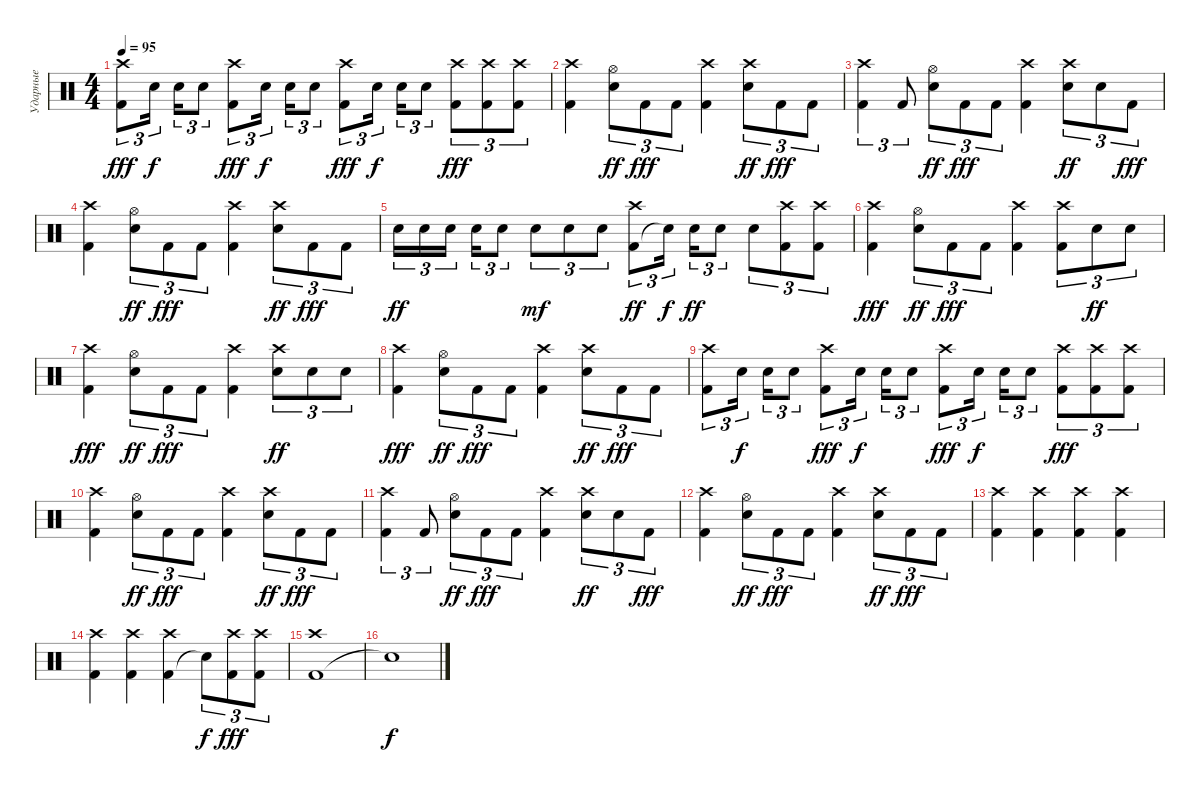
\track ("Ударные" "Ударные") {instrument percussion}
\staff
\articulation defaults
\ts (4 4)
\tempo 95
\clef neutral
\ks c
("Kick (hit) 2" "Crash high (hit)").8{tu (3 2) dy fff} "Snare (hit) 2".16{tu (3 2) dy f beam splitsecondary} "Snare (hit) 2".16{tu (3 2)} "Snare (hit) 2".8{tu (3 2)} ("Kick (hit) 2" "Crash high (hit)").8{tu (3 2) dy fff} "Snare (hit) 2".16{tu (3 2) dy f beam splitsecondary} "Snare (hit) 2".16{tu (3 2)} "Snare (hit) 2".8{tu (3 2)} ("Kick (hit) 2" "Crash high (hit)").8{tu (3 2) dy fff} "Snare (hit) 2".16{tu (3 2) dy f beam splitsecondary} "Snare (hit) 2".16{tu (3 2)} "Snare (hit) 2".8{tu (3 2)} ("Kick (hit) 2" "Crash high (hit)").8{tu (3 2) dy fff} ("Kick (hit) 2" "Crash high (hit)").8{tu (3 2)} ("Kick (hit) 2" "Crash high (hit)").8{tu (3 2)} |
("Kick (hit) 2" "Crash high (hit)").4 ("Snare (hit) 2" "Hi-Hat (open)").8{tu (3 2) dy ff} "Kick (hit) 2".8{tu (3 2) dy fff} "Kick (hit) 2".8{tu (3 2)} ("Kick (hit) 2" "Crash high (hit)").4 ("Snare (hit) 2" "Crash high (hit)").8{tu (3 2) dy ff} "Kick (hit) 2".8{tu (3 2) dy fff} "Kick (hit) 2".8{tu (3 2)} |
("Kick (hit) 2" "Crash high (hit)").4{tu (3 2)} "Kick (hit) 2".8{tu (3 2)} ("Snare (hit) 2" "Hi-Hat (open)").8{tu (3 2) dy ff} "Kick (hit) 2".8{tu (3 2) dy fff} "Kick (hit) 2".8{tu (3 2)} ("Kick (hit) 2" "Crash high (hit)").4 ("Snare (hit) 2" "Crash high (hit)").8{tu (3 2) dy ff} "Snare (hit) 2".8{tu (3 2)} "Kick (hit) 2".8{tu (3 2) dy fff} |
("Kick (hit) 2" "Crash high (hit)").4 ("Snare (hit) 2" "Hi-Hat (open)").8{tu (3 2) dy ff} "Kick (hit) 2".8{tu (3 2) dy fff} "Kick (hit) 2".8{tu (3 2)} ("Kick (hit) 2" "Crash high (hit)").4 ("Snare (hit) 2" "Crash high (hit)").8{tu (3 2) dy ff} "Kick (hit) 2".8{tu (3 2) dy fff} "Kick (hit) 2".8{tu (3 2)} |
"Snare (hit) 2".16{tu (3 2) dy ff} "Snare (hit) 2".16{tu (3 2)} "Snare (hit) 2".16{tu (3 2) beam splitsecondary} "Snare (hit) 2".16{tu (3 2)} "Snare (hit) 2".8{tu (3 2)} "Snare (hit) 2".8{tu (3 2) dy mf} "Snare (hit) 2".8{tu (3 2)} "Snare (hit) 2".8{tu (3 2)} ("Kick (hit) 2" "Crash high (hit)").8{tu (3 2) dy ff} "Snare (hit)"{t}.16{tu (3 2) dy f beam splitsecondary} "Snare (hit) 2".16{tu (3 2) dy ff} "Snare (hit) 2".8{tu (3 2)} "Snare (hit) 2".8{tu (3 2)} ("Kick (hit) 2" "Crash high (hit)").8{tu (3 2)} ("Kick (hit) 2" "Crash high (hit)").8{tu (3 2)} |
("Kick (hit) 2" "Crash high (hit)").4{dy fff} ("Snare (hit) 2" "Hi-Hat (open)").8{tu (3 2) dy ff} "Kick (hit) 2".8{tu (3 2) dy fff} "Kick (hit) 2".8{tu (3 2)} ("Kick (hit) 2" "Crash high (hit)").4 ("Kick (hit) 2" "Crash high (hit)").8{tu (3 2)} "Electric Snare (hit)".8{tu (3 2) dy ff} "Electric Snare (hit)".8{tu (3 2)} |
("Kick (hit) 2" "Crash high (hit)").4{dy fff} ("Snare (hit) 2" "Hi-Hat (open)").8{tu (3 2) dy ff} "Kick (hit) 2".8{tu (3 2) dy fff} "Kick (hit) 2".8{tu (3 2)} ("Kick (hit) 2" "Crash high (hit)").4 ("Snare (hit) 2" "Crash high (hit)").8{tu (3 2) dy ff} "Electric Snare (hit)".8{tu (3 2)} "Electric Snare (hit)".8{tu (3 2)} |
("Kick (hit) 2" "Crash high (hit)").4{dy fff} ("Snare (hit) 2" "Hi-Hat (open)").8{tu (3 2) dy ff} "Kick (hit) 2".8{tu (3 2) dy fff} "Kick (hit) 2".8{tu (3 2)} ("Kick (hit) 2" "Crash high (hit)").4 ("Snare (hit) 2" "Crash high (hit)").8{tu (3 2) dy ff} "Kick (hit) 2".8{tu (3 2) dy fff} "Kick (hit) 2".8{tu (3 2)} |
("Kick (hit) 2" "Crash high (hit)").8{tu (3 2)} "Snare (hit) 2".16{tu (3 2) dy f beam splitsecondary} "Snare (hit) 2".16{tu (3 2)} "Snare (hit) 2".8{tu (3 2)} ("Kick (hit) 2" "Crash high (hit)").8{tu (3 2) dy fff} "Snare (hit) 2".16{tu (3 2) dy f beam splitsecondary} "Snare (hit) 2".16{tu (3 2)} "Snare (hit) 2".8{tu (3 2)} ("Kick (hit) 2" "Crash high (hit)").8{tu (3 2) dy fff} "Snare (hit) 2".16{tu (3 2) dy f beam splitsecondary} "Snare (hit) 2".16{tu (3 2)} "Snare (hit) 2".8{tu (3 2)} ("Kick (hit) 2" "Crash high (hit)").8{tu (3 2) dy fff} ("Kick (hit) 2" "Crash high (hit)").8{tu (3 2)} ("Kick (hit) 2" "Crash high (hit)").8{tu (3 2)} |
("Kick (hit) 2" "Crash high (hit)").4 ("Snare (hit) 2" "Hi-Hat (open)").8{tu (3 2) dy ff} "Kick (hit) 2".8{tu (3 2) dy fff} "Kick (hit) 2".8{tu (3 2)} ("Kick (hit) 2" "Crash high (hit)").4 ("Snare (hit) 2" "Crash high (hit)").8{tu (3 2) dy ff} "Kick (hit) 2".8{tu (3 2) dy fff} "Kick (hit) 2".8{tu (3 2)} |
("Kick (hit) 2" "Crash high (hit)").4{tu (3 2)} "Kick (hit) 2".8{tu (3 2)} ("Snare (hit) 2" "Hi-Hat (open)").8{tu (3 2) dy ff} "Kick (hit) 2".8{tu (3 2) dy fff} "Kick (hit) 2".8{tu (3 2)} ("Kick (hit) 2" "Crash high (hit)").4 ("Snare (hit) 2" "Crash high (hit)").8{tu (3 2) dy ff} "Snare (hit) 2".8{tu (3 2)} "Kick (hit) 2".8{tu (3 2) dy fff} |
("Kick (hit) 2" "Crash high (hit)").4 ("Snare (hit) 2" "Hi-Hat (open)").8{tu (3 2) dy ff} "Kick (hit) 2".8{tu (3 2) dy fff} "Kick (hit) 2".8{tu (3 2)} ("Kick (hit) 2" "Crash high (hit)").4 ("Snare (hit) 2" "Crash high (hit)").8{tu (3 2) dy ff} "Kick (hit) 2".8{tu (3 2) dy fff} "Kick (hit) 2".8{tu (3 2)} |
("Kick (hit) 2" "Crash high (hit)").4 ("Kick (hit) 2" "Crash high (hit)").4 ("Kick (hit) 2" "Crash high (hit)").4 ("Kick (hit) 2" "Crash high (hit)").4 |
("Kick (hit) 2" "Crash high (hit)").4 ("Kick (hit) 2" "Crash high (hit)").4 ("Kick (hit) 2" "Crash high (hit)").4 "Snare (hit)"{t}.8{tu (3 2) dy f} ("Kick (hit) 2" "Crash high (hit)").8{tu (3 2) dy fff} ("Kick (hit) 2" "Crash high (hit)").8{tu (3 2)} |
("Kick (hit) 2" "Crash high (hit)").1 |
"Snare (hit)"{t}.1{dy f}
